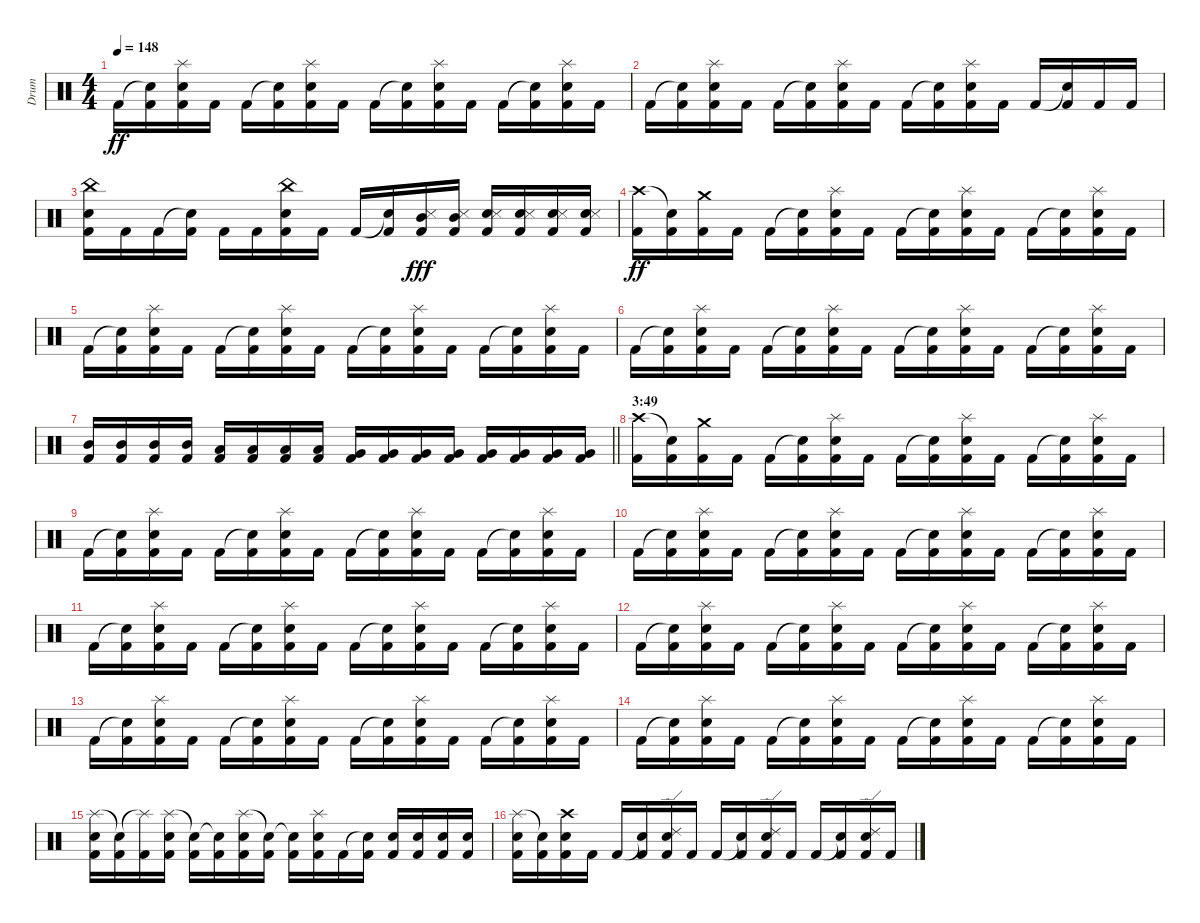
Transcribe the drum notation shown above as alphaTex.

\track ("Drum" "Drum") {instrument percussion}
\staff {score}
\articulation defaults
\ts (4 4)
\tempo 148
\clef neutral
\ks c "Kick (hit) 2".16{dy ff}
("Snare (hit)"{t} "Kick (hit) 2").16 ("Splash (hit)" "Snare (hit) 2" "Kick (hit) 2").16 "Kick (hit) 2".16 "Kick (hit) 2".16 ("Snare (hit)"{t} "Kick (hit) 2").16 ("Splash (hit)" "Snare (hit) 2" "Kick (hit) 2").16 "Kick (hit) 2".16 "Kick (hit) 2".16 ("Snare (hit)"{t} "Kick (hit) 2").16 ("Splash (hit)" "Snare (hit) 2" "Kick (hit) 2").16 "Kick (hit) 2".16 "Kick (hit) 2".16 ("Snare (hit)"{t} "Kick (hit) 2").16 ("Splash (hit)" "Snare (hit) 2" "Kick (hit) 2").16 "Kick (hit) 2".16 |
"Kick (hit) 2".16 ("Snare (hit)"{t} "Kick (hit) 2").16 ("Splash (hit)" "Snare (hit) 2" "Kick (hit) 2").16 "Kick (hit) 2".16 "Kick (hit) 2".16 ("Snare (hit)"{t} "Kick (hit) 2").16 ("Splash (hit)" "Snare (hit) 2" "Kick (hit) 2").16 "Kick (hit) 2".16 "Kick (hit) 2".16 ("Snare (hit)"{t} "Kick (hit) 2").16 ("Splash (hit)" "Snare (hit) 2" "Kick (hit) 2").16 "Kick (hit) 2".16 "Kick (hit) 2".16 ("Snare (hit)"{t} "Kick (hit) 2").16 "Kick (hit) 2".16 "Kick (hit) 2".16 |
("China (hit)" "Snare (hit) 2" "Kick (hit) 2").16 "Kick (hit) 2".16 "Kick (hit) 2".16 ("Snare (hit)"{t} "Kick (hit) 2").16 "Kick (hit) 2".16 "Kick (hit) 2".16 ("China (hit)" "Snare (hit) 2" "Kick (hit) 2").16 "Kick (hit) 2".16 "Kick (hit) 2".16 ("Snare (hit)"{t} "Kick (hit) 2").16 ("Mid Tom (hit)" "Snare (side stick) 3" "Kick (hit) 2").16{dy fff} ("Mid Tom (hit)" "Snare (side stick) 3" "Kick (hit) 2").16 ("Snare (hit) 2" "Snare (side stick) 3" "Kick (hit) 2").16 ("Snare (hit) 2" "Snare (side stick) 3" "Kick (hit) 2").16 ("Snare (hit) 2" "Snare (side stick) 3" "Kick (hit) 2").16 ("Snare (hit) 2" "Snare (side stick) 3" "Kick (hit) 2").16 |
("Crash high (hit)" "Kick (hit) 2").16{dy ff} ("Snare (hit)"{t} "Kick (hit) 2").16 ("Crash medium (hit)" "Kick (hit) 2").16 "Kick (hit) 2".16 "Kick (hit) 2".16 ("Snare (hit)"{t} "Kick (hit) 2").16 ("Splash (hit)" "Snare (hit) 2" "Kick (hit) 2").16 "Kick (hit) 2".16 "Kick (hit) 2".16 ("Snare (hit)"{t} "Kick (hit) 2").16 ("Splash (hit)" "Snare (hit) 2" "Kick (hit) 2").16 "Kick (hit) 2".16 "Kick (hit) 2".16 ("Snare (hit)"{t} "Kick (hit) 2").16 ("Splash (hit)" "Snare (hit) 2" "Kick (hit) 2").16 "Kick (hit) 2".16 |
"Kick (hit) 2".16 ("Snare (hit)"{t} "Kick (hit) 2").16 ("Splash (hit)" "Snare (hit) 2" "Kick (hit) 2").16 "Kick (hit) 2".16 "Kick (hit) 2".16 ("Snare (hit)"{t} "Kick (hit) 2").16 ("Splash (hit)" "Snare (hit) 2" "Kick (hit) 2").16 "Kick (hit) 2".16 "Kick (hit) 2".16 ("Snare (hit)"{t} "Kick (hit) 2").16 ("Splash (hit)" "Snare (hit) 2" "Kick (hit) 2").16 "Kick (hit) 2".16 "Kick (hit) 2".16 ("Snare (hit)"{t} "Kick (hit) 2").16 ("Splash (hit)" "Snare (hit) 2" "Kick (hit) 2").16 "Kick (hit) 2".16 |
"Kick (hit) 2".16 ("Snare (hit)"{t} "Kick (hit) 2").16 ("Splash (hit)" "Snare (hit) 2" "Kick (hit) 2").16 "Kick (hit) 2".16 "Kick (hit) 2".16 ("Snare (hit)"{t} "Kick (hit) 2").16 ("Splash (hit)" "Snare (hit) 2" "Kick (hit) 2").16 "Kick (hit) 2".16 "Kick (hit) 2".16 ("Snare (hit)"{t} "Kick (hit) 2").16 ("Splash (hit)" "Snare (hit) 2" "Kick (hit) 2").16 "Kick (hit) 2".16 "Kick (hit) 2".16 ("Snare (hit)"{t} "Kick (hit) 2").16 ("Splash (hit)" "Snare (hit) 2" "Kick (hit) 2").16 "Kick (hit) 2".16 |
\barLineRight lightlight
("Kick (hit) 2" "Mid Tom (hit)").16 ("Kick (hit) 2" "Mid Tom (hit)").16 ("Kick (hit) 2" "Mid Tom (hit)").16 ("Kick (hit) 2" "Mid Tom (hit)").16 ("Kick (hit) 2" "Low Tom (hit)").16 ("Kick (hit) 2" "Low Tom (hit)").16 ("Kick (hit) 2" "Low Tom (hit)").16 ("Kick (hit) 2" "Low Tom (hit)").16 ("Kick (hit) 2" "Very Low Tom (hit)").16 ("Kick (hit) 2" "Very Low Tom (hit)").16 ("Kick (hit) 2" "Very Low Tom (hit)").16 ("Kick (hit) 2" "Very Low Tom (hit)").16 ("Kick (hit) 2" "Very Low Tom (hit)").16 ("Kick (hit) 2" "Very Low Tom (hit)").16 ("Kick (hit) 2" "Very Low Tom (hit)").16 ("Kick (hit) 2" "Very Low Tom (hit)").16 |
\section ("" "3:49")
("Crash high (hit)" "Kick (hit) 2").16 ("Snare (hit)"{t} "Kick (hit) 2").16 ("Crash medium (hit)" "Kick (hit) 2").16 "Kick (hit) 2".16 "Kick (hit) 2".16 ("Snare (hit)"{t} "Kick (hit) 2").16 ("Splash (hit)" "Snare (hit) 2" "Kick (hit) 2").16 "Kick (hit) 2".16 "Kick (hit) 2".16 ("Snare (hit)"{t} "Kick (hit) 2").16 ("Splash (hit)" "Snare (hit) 2" "Kick (hit) 2").16 "Kick (hit) 2".16 "Kick (hit) 2".16 ("Snare (hit)"{t} "Kick (hit) 2").16 ("Splash (hit)" "Snare (hit) 2" "Kick (hit) 2").16 "Kick (hit) 2".16 |
"Kick (hit) 2".16 ("Snare (hit)"{t} "Kick (hit) 2").16 ("Splash (hit)" "Snare (hit) 2" "Kick (hit) 2").16 "Kick (hit) 2".16 "Kick (hit) 2".16 ("Snare (hit)"{t} "Kick (hit) 2").16 ("Splash (hit)" "Snare (hit) 2" "Kick (hit) 2").16 "Kick (hit) 2".16 "Kick (hit) 2".16 ("Snare (hit)"{t} "Kick (hit) 2").16 ("Splash (hit)" "Snare (hit) 2" "Kick (hit) 2").16 "Kick (hit) 2".16 "Kick (hit) 2".16 ("Snare (hit)"{t} "Kick (hit) 2").16 ("Splash (hit)" "Snare (hit) 2" "Kick (hit) 2").16 "Kick (hit) 2".16 |
"Kick (hit) 2".16 ("Snare (hit)"{t} "Kick (hit) 2").16 ("Splash (hit)" "Snare (hit) 2" "Kick (hit) 2").16 "Kick (hit) 2".16 "Kick (hit) 2".16 ("Snare (hit)"{t} "Kick (hit) 2").16 ("Splash (hit)" "Snare (hit) 2" "Kick (hit) 2").16 "Kick (hit) 2".16 "Kick (hit) 2".16 ("Snare (hit)"{t} "Kick (hit) 2").16 ("Splash (hit)" "Snare (hit) 2" "Kick (hit) 2").16 "Kick (hit) 2".16 "Kick (hit) 2".16 ("Snare (hit)"{t} "Kick (hit) 2").16 ("Splash (hit)" "Snare (hit) 2" "Kick (hit) 2").16 "Kick (hit) 2".16 |
"Kick (hit) 2".16 ("Snare (hit)"{t} "Kick (hit) 2").16 ("Splash (hit)" "Snare (hit) 2" "Kick (hit) 2").16 "Kick (hit) 2".16 "Kick (hit) 2".16 ("Snare (hit)"{t} "Kick (hit) 2").16 ("Splash (hit)" "Snare (hit) 2" "Kick (hit) 2").16 "Kick (hit) 2".16 "Kick (hit) 2".16 ("Snare (hit)"{t} "Kick (hit) 2").16 ("Splash (hit)" "Snare (hit) 2" "Kick (hit) 2").16 "Kick (hit) 2".16 "Kick (hit) 2".16 ("Snare (hit)"{t} "Kick (hit) 2").16 ("Splash (hit)" "Snare (hit) 2" "Kick (hit) 2").16 "Kick (hit) 2".16 |
"Kick (hit) 2".16 ("Snare (hit)"{t} "Kick (hit) 2").16 ("Splash (hit)" "Snare (hit) 2" "Kick (hit) 2").16 "Kick (hit) 2".16 "Kick (hit) 2".16 ("Snare (hit)"{t} "Kick (hit) 2").16 ("Splash (hit)" "Snare (hit) 2" "Kick (hit) 2").16 "Kick (hit) 2".16 "Kick (hit) 2".16 ("Snare (hit)"{t} "Kick (hit) 2").16 ("Splash (hit)" "Snare (hit) 2" "Kick (hit) 2").16 "Kick (hit) 2".16 "Kick (hit) 2".16 ("Snare (hit)"{t} "Kick (hit) 2").16 ("Splash (hit)" "Snare (hit) 2" "Kick (hit) 2").16 "Kick (hit) 2".16 |
"Kick (hit) 2".16 ("Snare (hit)"{t} "Kick (hit) 2").16 ("Splash (hit)" "Snare (hit) 2" "Kick (hit) 2").16 "Kick (hit) 2".16 "Kick (hit) 2".16 ("Snare (hit)"{t} "Kick (hit) 2").16 ("Splash (hit)" "Snare (hit) 2" "Kick (hit) 2").16 "Kick (hit) 2".16 "Kick (hit) 2".16 ("Snare (hit)"{t} "Kick (hit) 2").16 ("Splash (hit)" "Snare (hit) 2" "Kick (hit) 2").16 "Kick (hit) 2".16 "Kick (hit) 2".16 ("Snare (hit)"{t} "Kick (hit) 2").16 ("Splash (hit)" "Snare (hit) 2" "Kick (hit) 2").16 "Kick (hit) 2".16 |
"Kick (hit) 2".16 ("Snare (hit)"{t} "Kick (hit) 2").16 ("Splash (hit)" "Snare (hit) 2" "Kick (hit) 2").16 "Kick (hit) 2".16 "Kick (hit) 2".16 ("Snare (hit)"{t} "Kick (hit) 2").16 ("Splash (hit)" "Snare (hit) 2" "Kick (hit) 2").16 "Kick (hit) 2".16 "Kick (hit) 2".16 ("Snare (hit)"{t} "Kick (hit) 2").16 ("Splash (hit)" "Snare (hit) 2" "Kick (hit) 2").16 "Kick (hit) 2".16 "Kick (hit) 2".16 ("Snare (hit)"{t} "Kick (hit) 2").16 ("Splash (hit)" "Snare (hit) 2" "Kick (hit) 2").16 "Kick (hit) 2".16 |
("Splash (hit)" "Snare (hit) 2" "Kick (hit) 2").16 ("Snare (hit)"{t} "Kick (hit) 2").16 ("Splash (hit)"{t} "Kick (hit) 2").16 ("Splash (hit)" "Snare (hit) 2" "Kick (hit) 2").16 ("Snare (hit)"{t} "Kick (hit) 2").16 ("Snare (hit)"{t} "Kick (hit) 2").16 ("Splash (hit)" "Snare (hit) 2" "Kick (hit) 2").16 ("Snare (hit)"{t} "Kick (hit) 2").16 ("Snare (hit)"{t} "Kick (hit) 2").16 ("Splash (hit)" "Snare (hit) 2" "Kick (hit) 2").16 "Kick (hit) 2".16 ("Snare (hit)"{t} "Kick (hit) 2").16 ("Snare (hit) 2" "Kick (hit) 2").16 ("Snare (hit) 2" "Kick (hit) 2").16 ("Snare (hit) 2" "Kick (hit) 2").16 ("Snare (hit) 2" "Kick (hit) 2").16 |
("Splash (hit)" "Snare (hit) 2" "Kick (hit) 2").16 ("Snare (hit)"{t} "Kick (hit) 2").16 ("Crash high (hit)" "Snare (hit) 2" "Kick (hit) 2").16 "Kick (hit) 2".16 "Kick (hit) 2".16 ("Snare (hit)"{t} "Kick (hit) 2").16 ("Ride (edge) 2" "Snare (hit) 2" "Kick (hit) 2").16 "Kick (hit) 2".16 "Kick (hit) 2".16 ("Snare (hit)"{t} "Kick (hit) 2").16 ("Ride (edge) 2" "Snare (hit) 2" "Kick (hit) 2").16 "Kick (hit) 2".16 "Kick (hit) 2".16 ("Snare (hit)"{t} "Kick (hit) 2").16 ("Ride (edge) 2" "Snare (hit) 2" "Kick (hit) 2").16 "Kick (hit) 2".16
